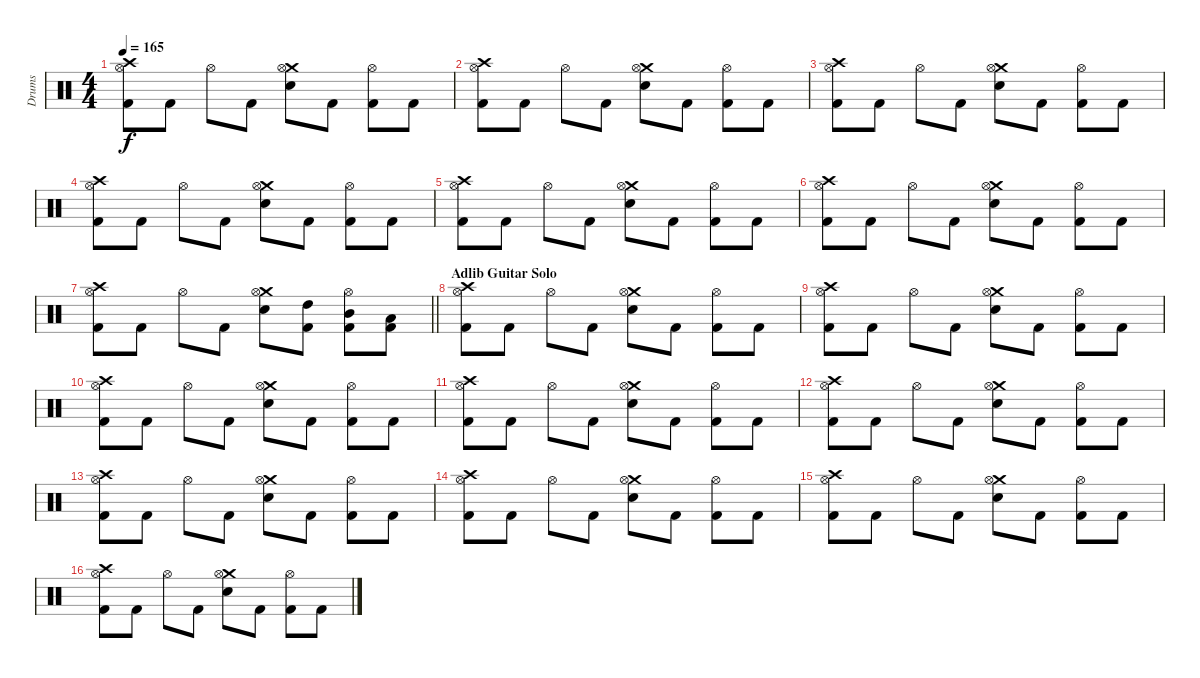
\track ("Drums" "Drums") {instrument percussion}
\staff {score}
\articulation defaults
\ts (4 4)
\tempo 165
\clef neutral
\ks c
("Crash high (hit)" "Hi-Hat (open)" "Kick (hit) 2").8{dy f} "Kick (hit) 2".8 "Hi-Hat (open)".8 "Kick (hit) 2".8 ("Crash medium (hit)" "Hi-Hat (open)" "Snare (hit) 2").8 "Kick (hit) 2".8 ("Hi-Hat (open)" "Kick (hit) 2").8 "Kick (hit) 2".8 |
("Crash high (hit)" "Hi-Hat (open)" "Kick (hit) 2").8 "Kick (hit) 2".8 "Hi-Hat (open)".8 "Kick (hit) 2".8 ("Crash medium (hit)" "Hi-Hat (open)" "Snare (hit) 2").8 "Kick (hit) 2".8 ("Hi-Hat (open)" "Kick (hit) 2").8 "Kick (hit) 2".8 |
("Crash high (hit)" "Hi-Hat (open)" "Kick (hit) 2").8 "Kick (hit) 2".8 "Hi-Hat (open)".8 "Kick (hit) 2".8 ("Crash medium (hit)" "Hi-Hat (open)" "Snare (hit) 2").8 "Kick (hit) 2".8 ("Hi-Hat (open)" "Kick (hit) 2").8 "Kick (hit) 2".8 |
("Crash high (hit)" "Hi-Hat (open)" "Kick (hit) 2").8 "Kick (hit) 2".8 "Hi-Hat (open)".8 "Kick (hit) 2".8 ("Crash medium (hit)" "Hi-Hat (open)" "Snare (hit) 2").8 "Kick (hit) 2".8 ("Hi-Hat (open)" "Kick (hit) 2").8 "Kick (hit) 2".8 |
("Crash high (hit)" "Hi-Hat (open)" "Kick (hit) 2").8 "Kick (hit) 2".8 "Hi-Hat (open)".8 "Kick (hit) 2".8 ("Crash medium (hit)" "Hi-Hat (open)" "Snare (hit) 2").8 "Kick (hit) 2".8 ("Hi-Hat (open)" "Kick (hit) 2").8 "Kick (hit) 2".8 |
("Crash high (hit)" "Hi-Hat (open)" "Kick (hit) 2").8 "Kick (hit) 2".8 "Hi-Hat (open)".8 "Kick (hit) 2".8 ("Crash medium (hit)" "Hi-Hat (open)" "Snare (hit) 2").8 "Kick (hit) 2".8 ("Hi-Hat (open)" "Kick (hit) 2").8 "Kick (hit) 2".8 |
\barLineRight lightlight
("Crash high (hit)" "Hi-Hat (open)" "Kick (hit) 2").8 "Kick (hit) 2".8 "Hi-Hat (open)".8 "Kick (hit) 2".8 ("Crash medium (hit)" "Hi-Hat (open)" "Snare (hit) 2").8 ("High Tom (hit)" "Kick (hit) 2").8 ("Hi-Hat (open)" "Mid Tom (hit)" "Kick (hit) 2").8 ("Low Tom (hit)" "Kick (hit) 2").8 |
\section ("" "Adlib Guitar Solo")
("Crash high (hit)" "Hi-Hat (open)" "Kick (hit) 2").8 "Kick (hit) 2".8 "Hi-Hat (open)".8 "Kick (hit) 2".8 ("Crash medium (hit)" "Hi-Hat (open)" "Snare (hit) 2").8 "Kick (hit) 2".8 ("Hi-Hat (open)" "Kick (hit) 2").8 "Kick (hit) 2".8 |
("Crash high (hit)" "Hi-Hat (open)" "Kick (hit) 2").8 "Kick (hit) 2".8 "Hi-Hat (open)".8 "Kick (hit) 2".8 ("Crash medium (hit)" "Hi-Hat (open)" "Snare (hit) 2").8 "Kick (hit) 2".8 ("Hi-Hat (open)" "Kick (hit) 2").8 "Kick (hit) 2".8 |
("Crash high (hit)" "Hi-Hat (open)" "Kick (hit) 2").8 "Kick (hit) 2".8 "Hi-Hat (open)".8 "Kick (hit) 2".8 ("Crash medium (hit)" "Hi-Hat (open)" "Snare (hit) 2").8 "Kick (hit) 2".8 ("Hi-Hat (open)" "Kick (hit) 2").8 "Kick (hit) 2".8 |
("Crash high (hit)" "Hi-Hat (open)" "Kick (hit) 2").8 "Kick (hit) 2".8 "Hi-Hat (open)".8 "Kick (hit) 2".8 ("Crash medium (hit)" "Hi-Hat (open)" "Snare (hit) 2").8 "Kick (hit) 2".8 ("Hi-Hat (open)" "Kick (hit) 2").8 "Kick (hit) 2".8 |
("Crash high (hit)" "Hi-Hat (open)" "Kick (hit) 2").8 "Kick (hit) 2".8 "Hi-Hat (open)".8 "Kick (hit) 2".8 ("Crash medium (hit)" "Hi-Hat (open)" "Snare (hit) 2").8 "Kick (hit) 2".8 ("Hi-Hat (open)" "Kick (hit) 2").8 "Kick (hit) 2".8 |
("Crash high (hit)" "Hi-Hat (open)" "Kick (hit) 2").8 "Kick (hit) 2".8 "Hi-Hat (open)".8 "Kick (hit) 2".8 ("Crash medium (hit)" "Hi-Hat (open)" "Snare (hit) 2").8 "Kick (hit) 2".8 ("Hi-Hat (open)" "Kick (hit) 2").8 "Kick (hit) 2".8 |
("Crash high (hit)" "Hi-Hat (open)" "Kick (hit) 2").8 "Kick (hit) 2".8 "Hi-Hat (open)".8 "Kick (hit) 2".8 ("Crash medium (hit)" "Hi-Hat (open)" "Snare (hit) 2").8 "Kick (hit) 2".8 ("Hi-Hat (open)" "Kick (hit) 2").8 "Kick (hit) 2".8 |
("Crash high (hit)" "Hi-Hat (open)" "Kick (hit) 2").8 "Kick (hit) 2".8 "Hi-Hat (open)".8 "Kick (hit) 2".8 ("Crash medium (hit)" "Hi-Hat (open)" "Snare (hit) 2").8 "Kick (hit) 2".8 ("Hi-Hat (open)" "Kick (hit) 2").8 "Kick (hit) 2".8 |
("Crash high (hit)" "Hi-Hat (open)" "Kick (hit) 2").8 "Kick (hit) 2".8 "Hi-Hat (open)".8 "Kick (hit) 2".8 ("Crash medium (hit)" "Hi-Hat (open)" "Snare (hit) 2").8 "Kick (hit) 2".8 ("Hi-Hat (open)" "Kick (hit) 2").8 "Kick (hit) 2".8
